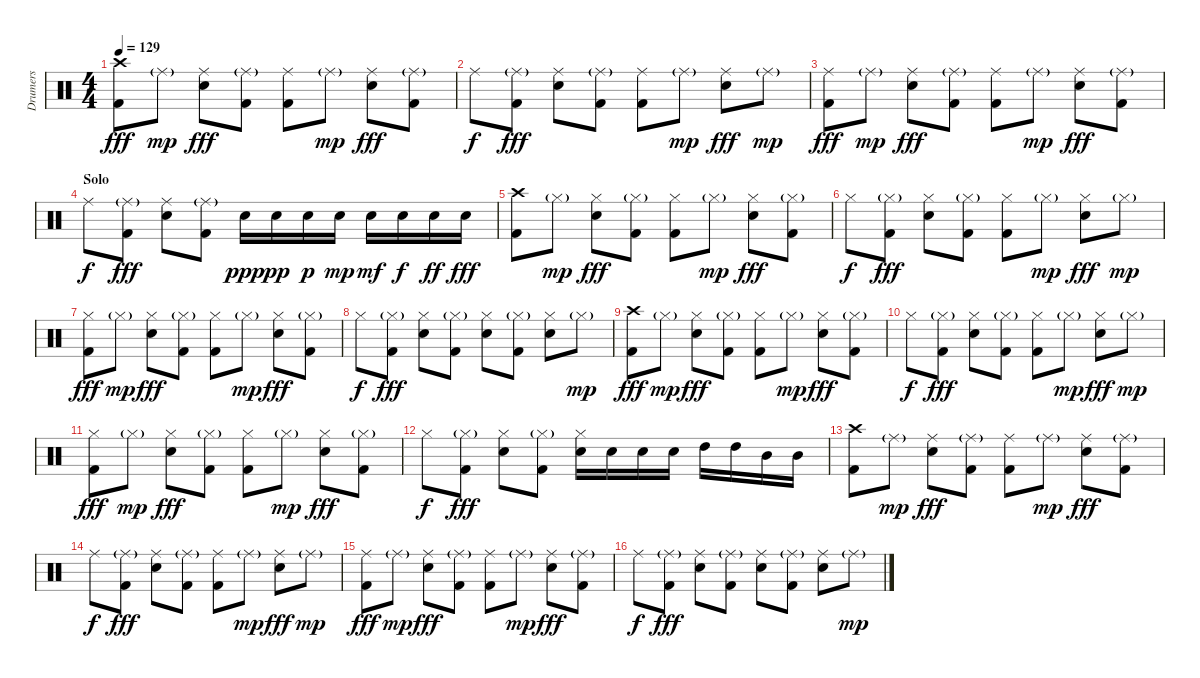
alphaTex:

\track ("Drumers" "Drumers") {instrument percussion}
\staff {score}
\articulation defaults
\ts (4 4)
\tempo 129
\clef neutral
\ks c
("Crash high (hit)" "Kick (hit) 2").8{dy fff} "Ride (middle)"{g}.8{dy mp} ("Ride (middle)" "Electric Snare (hit)").8{dy fff} ("Ride (middle)"{g} "Kick (hit) 2").8 ("Ride (middle)" "Kick (hit) 2").8 "Ride (middle)"{g}.8{dy mp} ("Ride (middle)" "Electric Snare (hit)").8{dy fff} ("Ride (middle)"{g} "Kick (hit) 2").8 |
"Ride (middle)".8{dy f} ("Ride (middle)"{g} "Kick (hit) 2").8{dy fff} ("Ride (middle)" "Electric Snare (hit)").8 ("Ride (middle)"{g} "Kick (hit) 2").8 ("Ride (middle)" "Kick (hit) 2").8 "Ride (middle)"{g}.8{dy mp} ("Ride (middle)" "Electric Snare (hit)").8{dy fff} "Ride (middle)"{g}.8{dy mp} |
("Ride (middle)" "Kick (hit) 2").8{dy fff} "Ride (middle)"{g}.8{dy mp} ("Ride (middle)" "Electric Snare (hit)").8{dy fff} ("Ride (middle)"{g} "Kick (hit) 2").8 ("Ride (middle)" "Kick (hit) 2").8 "Ride (middle)"{g}.8{dy mp} ("Ride (middle)" "Electric Snare (hit)").8{dy fff} ("Ride (middle)"{g} "Kick (hit) 2").8 |
\section ("" "Solo")
"Ride (middle)".8{dy f} ("Ride (middle)"{g} "Kick (hit) 2").8{dy fff} ("Ride (middle)" "Electric Snare (hit)").8 ("Ride (middle)"{g} "Kick (hit) 2").8 "Electric Snare (hit)".16{dy ppp} "Electric Snare (hit)".16{dy pp} "Electric Snare (hit)".16{dy p} "Electric Snare (hit)".16{dy mp} "Electric Snare (hit)".16{dy mf} "Electric Snare (hit)".16{dy f} "Electric Snare (hit)".16{dy ff} "Electric Snare (hit)".16{dy fff} |
("Crash high (hit)" "Kick (hit) 2").8 "Hi-Hat (closed)"{g}.8{dy mp} ("Hi-Hat (closed)" "Electric Snare (hit)").8{dy fff} ("Hi-Hat (closed)"{g} "Kick (hit) 2").8 ("Hi-Hat (closed)" "Kick (hit) 2").8 "Hi-Hat (closed)"{g}.8{dy mp} ("Hi-Hat (closed)" "Electric Snare (hit)").8{dy fff} ("Hi-Hat (closed)"{g} "Kick (hit) 2").8 |
"Hi-Hat (closed)".8{dy f} ("Hi-Hat (closed)"{g} "Kick (hit) 2").8{dy fff} ("Hi-Hat (closed)" "Electric Snare (hit)").8 ("Hi-Hat (closed)"{g} "Kick (hit) 2").8 ("Hi-Hat (closed)" "Kick (hit) 2").8 "Hi-Hat (closed)"{g}.8{dy mp} ("Hi-Hat (closed)" "Electric Snare (hit)").8{dy fff} "Hi-Hat (closed)"{g}.8{dy mp} |
("Hi-Hat (closed)" "Kick (hit) 2").8{dy fff} "Hi-Hat (closed)"{g}.8{dy mp} ("Hi-Hat (closed)" "Electric Snare (hit)").8{dy fff} ("Hi-Hat (closed)"{g} "Kick (hit) 2").8 ("Hi-Hat (closed)" "Kick (hit) 2").8 "Hi-Hat (closed)"{g}.8{dy mp} ("Hi-Hat (closed)" "Electric Snare (hit)").8{dy fff} ("Hi-Hat (closed)"{g} "Kick (hit) 2").8 |
"Hi-Hat (closed)".8{dy f} ("Hi-Hat (closed)"{g} "Kick (hit) 2").8{dy fff} ("Hi-Hat (closed)" "Electric Snare (hit)").8 ("Hi-Hat (closed)"{g} "Kick (hit) 2").8 ("Hi-Hat (closed)" "Electric Snare (hit)").8 ("Hi-Hat (closed)"{g} "Kick (hit) 2").8 ("Hi-Hat (closed)" "Electric Snare (hit)").8 "Hi-Hat (closed)"{g}.8{dy mp} |
("Crash high (hit)" "Kick (hit) 2").8{dy fff} "Hi-Hat (closed)"{g}.8{dy mp} ("Hi-Hat (closed)" "Electric Snare (hit)").8{dy fff} ("Hi-Hat (closed)"{g} "Kick (hit) 2").8 ("Hi-Hat (closed)" "Kick (hit) 2").8 "Hi-Hat (closed)"{g}.8{dy mp} ("Hi-Hat (closed)" "Electric Snare (hit)").8{dy fff} ("Hi-Hat (closed)"{g} "Kick (hit) 2").8 |
"Hi-Hat (closed)".8{dy f} ("Hi-Hat (closed)"{g} "Kick (hit) 2").8{dy fff} ("Hi-Hat (closed)" "Electric Snare (hit)").8 ("Hi-Hat (closed)"{g} "Kick (hit) 2").8 ("Hi-Hat (closed)" "Kick (hit) 2").8 "Hi-Hat (closed)"{g}.8{dy mp} ("Hi-Hat (closed)" "Electric Snare (hit)").8{dy fff} "Hi-Hat (closed)"{g}.8{dy mp} |
("Hi-Hat (closed)" "Kick (hit) 2").8{dy fff} "Hi-Hat (closed)"{g}.8{dy mp} ("Hi-Hat (closed)" "Electric Snare (hit)").8{dy fff} ("Hi-Hat (closed)"{g} "Kick (hit) 2").8 ("Hi-Hat (closed)" "Kick (hit) 2").8 "Hi-Hat (closed)"{g}.8{dy mp} ("Hi-Hat (closed)" "Electric Snare (hit)").8{dy fff} ("Hi-Hat (closed)"{g} "Kick (hit) 2").8 |
"Hi-Hat (closed)".8{dy f} ("Hi-Hat (closed)"{g} "Kick (hit) 2").8{dy fff} ("Hi-Hat (closed)" "Electric Snare (hit)").8 ("Hi-Hat (closed)"{g} "Kick (hit) 2").8 ("Hi-Hat (closed)" "Electric Snare (hit)").16 "Electric Snare (hit)".16 "Electric Snare (hit)".16 "Electric Snare (hit)".16 "High Tom (hit)".16 "High Tom (hit)".16 "Mid Tom (hit)".16 "Mid Tom (hit)".16 |
("Crash high (hit)" "Kick (hit) 2").8 "Ride (middle)"{g}.8{dy mp} ("Ride (middle)" "Electric Snare (hit)").8{dy fff} ("Ride (middle)"{g} "Kick (hit) 2").8 ("Ride (middle)" "Kick (hit) 2").8 "Ride (middle)"{g}.8{dy mp} ("Ride (middle)" "Electric Snare (hit)").8{dy fff} ("Ride (middle)"{g} "Kick (hit) 2").8 |
"Ride (middle)".8{dy f} ("Ride (middle)"{g} "Kick (hit) 2").8{dy fff} ("Ride (middle)" "Electric Snare (hit)").8 ("Ride (middle)"{g} "Kick (hit) 2").8 ("Ride (middle)" "Kick (hit) 2").8 "Ride (middle)"{g}.8{dy mp} ("Ride (middle)" "Electric Snare (hit)").8{dy fff} "Ride (middle)"{g}.8{dy mp} |
("Ride (middle)" "Kick (hit) 2").8{dy fff} "Ride (middle)"{g}.8{dy mp} ("Ride (middle)" "Electric Snare (hit)").8{dy fff} ("Ride (middle)"{g} "Kick (hit) 2").8 ("Ride (middle)" "Kick (hit) 2").8 "Ride (middle)"{g}.8{dy mp} ("Ride (middle)" "Electric Snare (hit)").8{dy fff} ("Ride (middle)"{g} "Kick (hit) 2").8 |
"Ride (middle)".8{dy f} ("Ride (middle)"{g} "Kick (hit) 2").8{dy fff} ("Ride (middle)" "Electric Snare (hit)").8 ("Ride (middle)"{g} "Kick (hit) 2").8 ("Ride (middle)" "Electric Snare (hit)").8 ("Ride (middle)"{g} "Kick (hit) 2").8 ("Ride (middle)" "Electric Snare (hit)").8 "Ride (middle)"{g}.8{dy mp}
